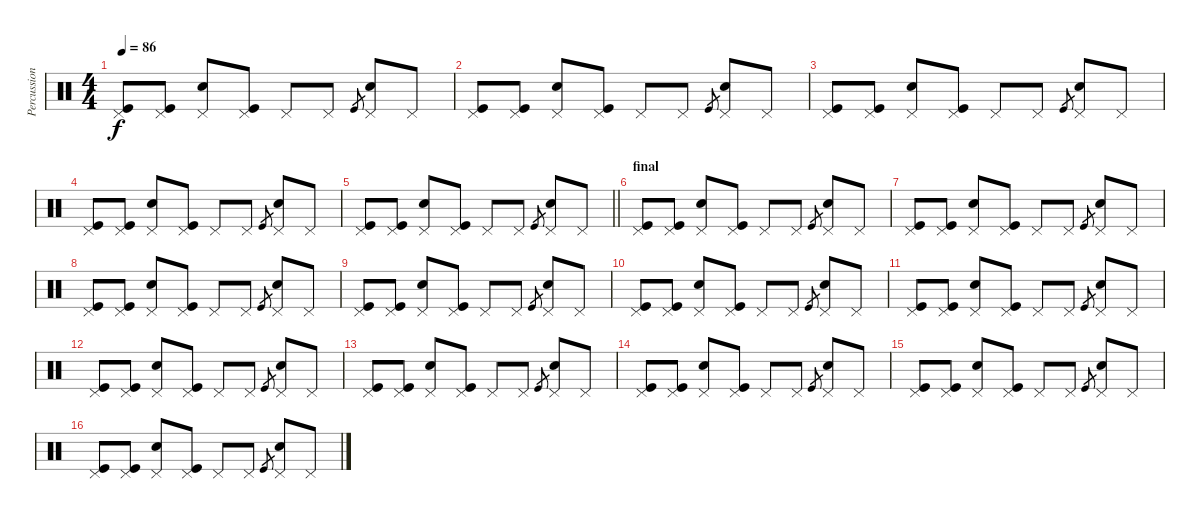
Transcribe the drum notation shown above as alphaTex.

\track ("Percussions" "Percussion") {instrument percussion}
\staff {score}
\articulation defaults
\ts (4 4)
\tempo 86
\clef neutral
\ks c
("Pedal Hi-Hat (hit)" "Kick (hit)").8{dy f} ("Pedal Hi-Hat (hit)" "Kick (hit)").8 ("Pedal Hi-Hat (hit)" "Electric Snare (hit)").8 ("Pedal Hi-Hat (hit)" "Kick (hit)").8 "Pedal Hi-Hat (hit)".8 "Pedal Hi-Hat (hit)".8 "Kick (hit)".8{gr} ("Pedal Hi-Hat (hit)" "Electric Snare (hit)").8 "Pedal Hi-Hat (hit)".8 |
("Pedal Hi-Hat (hit)" "Kick (hit)").8 ("Pedal Hi-Hat (hit)" "Kick (hit)").8 ("Pedal Hi-Hat (hit)" "Electric Snare (hit)").8 ("Pedal Hi-Hat (hit)" "Kick (hit)").8 "Pedal Hi-Hat (hit)".8 "Pedal Hi-Hat (hit)".8 "Kick (hit)".8{gr} ("Pedal Hi-Hat (hit)" "Electric Snare (hit)").8 "Pedal Hi-Hat (hit)".8 |
("Pedal Hi-Hat (hit)" "Kick (hit)").8 ("Pedal Hi-Hat (hit)" "Kick (hit)").8 ("Pedal Hi-Hat (hit)" "Electric Snare (hit)").8 ("Pedal Hi-Hat (hit)" "Kick (hit)").8 "Pedal Hi-Hat (hit)".8 "Pedal Hi-Hat (hit)".8 "Kick (hit)".8{gr} ("Pedal Hi-Hat (hit)" "Electric Snare (hit)").8 "Pedal Hi-Hat (hit)".8 |
("Pedal Hi-Hat (hit)" "Kick (hit)").8 ("Pedal Hi-Hat (hit)" "Kick (hit)").8 ("Pedal Hi-Hat (hit)" "Electric Snare (hit)").8 ("Pedal Hi-Hat (hit)" "Kick (hit)").8 "Pedal Hi-Hat (hit)".8 "Pedal Hi-Hat (hit)".8 "Kick (hit)".8{gr} ("Pedal Hi-Hat (hit)" "Electric Snare (hit)").8 "Pedal Hi-Hat (hit)".8 |
\barLineRight lightlight
("Pedal Hi-Hat (hit)" "Kick (hit)").8 ("Pedal Hi-Hat (hit)" "Kick (hit)").8 ("Pedal Hi-Hat (hit)" "Electric Snare (hit)").8 ("Pedal Hi-Hat (hit)" "Kick (hit)").8 "Pedal Hi-Hat (hit)".8 "Pedal Hi-Hat (hit)".8 "Kick (hit)".8{gr} ("Pedal Hi-Hat (hit)" "Electric Snare (hit)").8 "Pedal Hi-Hat (hit)".8 |
\section ("" "final")
("Pedal Hi-Hat (hit)" "Kick (hit)").8 ("Pedal Hi-Hat (hit)" "Kick (hit)").8 ("Pedal Hi-Hat (hit)" "Electric Snare (hit)").8 ("Pedal Hi-Hat (hit)" "Kick (hit)").8 "Pedal Hi-Hat (hit)".8 "Pedal Hi-Hat (hit)".8 "Kick (hit)".8{gr} ("Pedal Hi-Hat (hit)" "Electric Snare (hit)").8 "Pedal Hi-Hat (hit)".8 |
("Pedal Hi-Hat (hit)" "Kick (hit)").8 ("Pedal Hi-Hat (hit)" "Kick (hit)").8 ("Pedal Hi-Hat (hit)" "Electric Snare (hit)").8 ("Pedal Hi-Hat (hit)" "Kick (hit)").8 "Pedal Hi-Hat (hit)".8 "Pedal Hi-Hat (hit)".8 "Kick (hit)".8{gr} ("Pedal Hi-Hat (hit)" "Electric Snare (hit)").8 "Pedal Hi-Hat (hit)".8 |
("Pedal Hi-Hat (hit)" "Kick (hit)").8 ("Pedal Hi-Hat (hit)" "Kick (hit)").8 ("Pedal Hi-Hat (hit)" "Electric Snare (hit)").8 ("Pedal Hi-Hat (hit)" "Kick (hit)").8 "Pedal Hi-Hat (hit)".8 "Pedal Hi-Hat (hit)".8 "Kick (hit)".8{gr} ("Pedal Hi-Hat (hit)" "Electric Snare (hit)").8 "Pedal Hi-Hat (hit)".8 |
("Pedal Hi-Hat (hit)" "Kick (hit)").8 ("Pedal Hi-Hat (hit)" "Kick (hit)").8 ("Pedal Hi-Hat (hit)" "Electric Snare (hit)").8 ("Pedal Hi-Hat (hit)" "Kick (hit)").8 "Pedal Hi-Hat (hit)".8 "Pedal Hi-Hat (hit)".8 "Kick (hit)".8{gr} ("Pedal Hi-Hat (hit)" "Electric Snare (hit)").8 "Pedal Hi-Hat (hit)".8 |
("Pedal Hi-Hat (hit)" "Kick (hit)").8 ("Pedal Hi-Hat (hit)" "Kick (hit)").8 ("Pedal Hi-Hat (hit)" "Electric Snare (hit)").8 ("Pedal Hi-Hat (hit)" "Kick (hit)").8 "Pedal Hi-Hat (hit)".8 "Pedal Hi-Hat (hit)".8 "Kick (hit)".8{gr} ("Pedal Hi-Hat (hit)" "Electric Snare (hit)").8 "Pedal Hi-Hat (hit)".8 |
("Pedal Hi-Hat (hit)" "Kick (hit)").8 ("Pedal Hi-Hat (hit)" "Kick (hit)").8 ("Pedal Hi-Hat (hit)" "Electric Snare (hit)").8 ("Pedal Hi-Hat (hit)" "Kick (hit)").8 "Pedal Hi-Hat (hit)".8 "Pedal Hi-Hat (hit)".8 "Kick (hit)".8{gr} ("Pedal Hi-Hat (hit)" "Electric Snare (hit)").8 "Pedal Hi-Hat (hit)".8 |
("Pedal Hi-Hat (hit)" "Kick (hit)").8 ("Pedal Hi-Hat (hit)" "Kick (hit)").8 ("Pedal Hi-Hat (hit)" "Electric Snare (hit)").8 ("Pedal Hi-Hat (hit)" "Kick (hit)").8 "Pedal Hi-Hat (hit)".8 "Pedal Hi-Hat (hit)".8 "Kick (hit)".8{gr} ("Pedal Hi-Hat (hit)" "Electric Snare (hit)").8 "Pedal Hi-Hat (hit)".8 |
("Pedal Hi-Hat (hit)" "Kick (hit)").8 ("Pedal Hi-Hat (hit)" "Kick (hit)").8 ("Pedal Hi-Hat (hit)" "Electric Snare (hit)").8 ("Pedal Hi-Hat (hit)" "Kick (hit)").8 "Pedal Hi-Hat (hit)".8 "Pedal Hi-Hat (hit)".8 "Kick (hit)".8{gr} ("Pedal Hi-Hat (hit)" "Electric Snare (hit)").8 "Pedal Hi-Hat (hit)".8 |
("Pedal Hi-Hat (hit)" "Kick (hit)").8 ("Pedal Hi-Hat (hit)" "Kick (hit)").8 ("Pedal Hi-Hat (hit)" "Electric Snare (hit)").8 ("Pedal Hi-Hat (hit)" "Kick (hit)").8 "Pedal Hi-Hat (hit)".8 "Pedal Hi-Hat (hit)".8 "Kick (hit)".8{gr} ("Pedal Hi-Hat (hit)" "Electric Snare (hit)").8 "Pedal Hi-Hat (hit)".8 |
("Pedal Hi-Hat (hit)" "Kick (hit)").8 ("Pedal Hi-Hat (hit)" "Kick (hit)").8 ("Pedal Hi-Hat (hit)" "Electric Snare (hit)").8 ("Pedal Hi-Hat (hit)" "Kick (hit)").8 "Pedal Hi-Hat (hit)".8 "Pedal Hi-Hat (hit)".8 "Kick (hit)".8{gr} ("Pedal Hi-Hat (hit)" "Electric Snare (hit)").8 "Pedal Hi-Hat (hit)".8 |
("Pedal Hi-Hat (hit)" "Kick (hit)").8 ("Pedal Hi-Hat (hit)" "Kick (hit)").8 ("Pedal Hi-Hat (hit)" "Electric Snare (hit)").8 ("Pedal Hi-Hat (hit)" "Kick (hit)").8 "Pedal Hi-Hat (hit)".8 "Pedal Hi-Hat (hit)".8 "Kick (hit)".8{gr} ("Pedal Hi-Hat (hit)" "Electric Snare (hit)").8 "Pedal Hi-Hat (hit)".8
